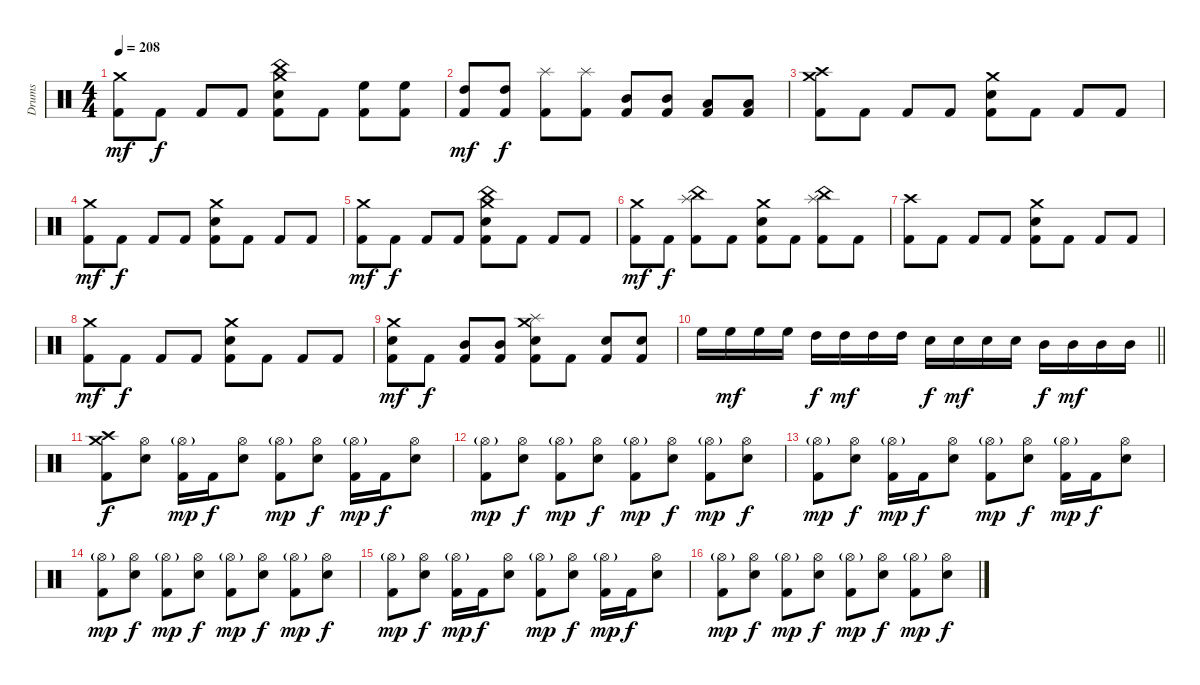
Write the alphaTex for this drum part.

\track ("Drums" "Drums") {instrument percussion}
\staff {score}
\articulation defaults
\ts (4 4)
\tempo 208
\clef neutral
\ks c
("Crash medium (hit)" "Kick (hit) 2").8{dy mf} "Kick (hit) 2".8{dy f} "Kick (hit) 2".8 "Kick (hit) 2".8 ("China (hit)" "Crash medium (hit)" "Electric Snare (hit)" "Kick (hit) 2").8 "Kick (hit) 2".8 ("High Floor Tom (hit)" "Kick (hit) 2").8 ("High Floor Tom (hit)" "Kick (hit) 2").8 |
("High Tom (hit)" "Kick (hit) 2").8{dy mf} ("High Tom (hit)" "Kick (hit) 2").8{dy f} ("Splash (hit)" "Kick (hit) 2").8 ("Splash (hit)" "Kick (hit) 2").8 ("Mid Tom (hit)" "Kick (hit) 2").8 ("Mid Tom (hit)" "Kick (hit) 2").8 ("Low Tom (hit)" "Kick (hit) 2").8 ("Low Tom (hit)" "Kick (hit) 2").8 |
("Crash high (hit)" "Crash medium (hit)" "Kick (hit) 2").8 "Kick (hit) 2".8 "Kick (hit) 2".8 "Kick (hit) 2".8 ("Crash medium (hit)" "Electric Snare (hit)" "Kick (hit) 2").8 "Kick (hit) 2".8 "Kick (hit) 2".8 "Kick (hit) 2".8 |
("Crash medium (hit)" "Kick (hit) 2").8{dy mf} "Kick (hit) 2".8{dy f} "Kick (hit) 2".8 "Kick (hit) 2".8 ("Crash medium (hit)" "Electric Snare (hit)" "Kick (hit) 2").8 "Kick (hit) 2".8 "Kick (hit) 2".8 "Kick (hit) 2".8 |
("Crash medium (hit)" "Kick (hit) 2").8{dy mf} "Kick (hit) 2".8{dy f} "Kick (hit) 2".8 "Kick (hit) 2".8 ("China (hit)" "Crash medium (hit)" "Electric Snare (hit)" "Kick (hit) 2").8 "Kick (hit) 2".8 "Kick (hit) 2".8 "Kick (hit) 2".8 |
("Crash medium (hit)" "Kick (hit) 2").8{dy mf} "Kick (hit) 2".8{dy f} ("China (hit)" "Splash (hit)" "Kick (hit) 2").8 "Kick (hit) 2".8 ("Crash medium (hit)" "Electric Snare (hit)" "Kick (hit) 2").8 "Kick (hit) 2".8 ("China (hit)" "Splash (hit)" "Kick (hit) 2").8 "Kick (hit) 2".8 |
("Crash high (hit)" "Kick (hit) 2").8 "Kick (hit) 2".8 "Kick (hit) 2".8 "Kick (hit) 2".8 ("Crash medium (hit)" "Electric Snare (hit)" "Kick (hit) 2").8 "Kick (hit) 2".8 "Kick (hit) 2".8 "Kick (hit) 2".8 |
("Crash medium (hit)" "Kick (hit) 2").8{dy mf} "Kick (hit) 2".8{dy f} "Kick (hit) 2".8 "Kick (hit) 2".8 ("Crash medium (hit)" "Electric Snare (hit)" "Kick (hit) 2").8 "Kick (hit) 2".8 "Kick (hit) 2".8 "Kick (hit) 2".8 |
("Crash medium (hit)" "Electric Snare (hit)" "Kick (hit) 2").8{dy mf} "Kick (hit) 2".8{dy f} ("Mid Tom (hit)" "Kick (hit) 2").8 ("Mid Tom (hit)" "Kick (hit) 2").8 ("Splash (hit)" "Crash medium (hit)" "Electric Snare (hit)" "Kick (hit) 2").8 "Kick (hit) 2".8 ("Electric Snare (hit)" "Kick (hit) 2").8 ("Electric Snare (hit)" "Kick (hit) 2").8 |
\barLineRight lightlight "High Floor Tom (hit)".16 "High Floor Tom (hit)".16{dy mf} "High Floor Tom (hit)".16 "High Floor Tom (hit)".16 "High Tom (hit)".16{dy f} "High Tom (hit)".16{dy mf} "High Tom (hit)".16 "High Tom (hit)".16 "Electric Snare (hit)".16{dy f} "Electric Snare (hit)".16{dy mf} "Electric Snare (hit)".16 "Electric Snare (hit)".16 "Mid Tom (hit)".16{dy f} "Mid Tom (hit)".16{dy mf} "Mid Tom (hit)".16 "Mid Tom (hit)".16
|
("Crash high (hit)" "Crash medium (hit)" "Kick (hit) 2").8{dy f} ("Hi-Hat (open)" "Electric Snare (hit)").8 ("Hi-Hat (open)"{g} "Kick (hit) 2").16{dy mp} "Kick (hit) 2".16{dy f} ("Hi-Hat (open)" "Electric Snare (hit)").8 ("Hi-Hat (open)"{g} "Kick (hit) 2").8{dy mp} ("Hi-Hat (open)" "Electric Snare (hit)").8{dy f} ("Hi-Hat (open)"{g} "Kick (hit) 2").16{dy mp} "Kick (hit) 2".16{dy f} ("Hi-Hat (open)" "Electric Snare (hit)").8 |
("Hi-Hat (open)"{g} "Kick (hit) 2").8{dy mp} ("Hi-Hat (open)" "Electric Snare (hit)").8{dy f} ("Hi-Hat (open)"{g} "Kick (hit) 2").8{dy mp} ("Hi-Hat (open)" "Electric Snare (hit)").8{dy f} ("Hi-Hat (open)"{g} "Kick (hit) 2").8{dy mp} ("Hi-Hat (open)" "Electric Snare (hit)").8{dy f} ("Hi-Hat (open)"{g} "Kick (hit) 2").8{dy mp} ("Hi-Hat (open)" "Electric Snare (hit)").8{dy f} |
("Hi-Hat (open)"{g} "Kick (hit) 2").8{dy mp} ("Hi-Hat (open)" "Electric Snare (hit)").8{dy f} ("Hi-Hat (open)"{g} "Kick (hit) 2").16{dy mp} "Kick (hit) 2".16{dy f} ("Hi-Hat (open)" "Electric Snare (hit)").8 ("Hi-Hat (open)"{g} "Kick (hit) 2").8{dy mp} ("Hi-Hat (open)" "Electric Snare (hit)").8{dy f} ("Hi-Hat (open)"{g} "Kick (hit) 2").16{dy mp} "Kick (hit) 2".16{dy f} ("Hi-Hat (open)" "Electric Snare (hit)").8 |
("Hi-Hat (open)"{g} "Kick (hit) 2").8{dy mp} ("Hi-Hat (open)" "Electric Snare (hit)").8{dy f} ("Hi-Hat (open)"{g} "Kick (hit) 2").8{dy mp} ("Hi-Hat (open)" "Electric Snare (hit)").8{dy f} ("Hi-Hat (open)"{g} "Kick (hit) 2").8{dy mp} ("Hi-Hat (open)" "Electric Snare (hit)").8{dy f} ("Hi-Hat (open)"{g} "Kick (hit) 2").8{dy mp} ("Hi-Hat (open)" "Electric Snare (hit)").8{dy f} |
("Hi-Hat (open)"{g} "Kick (hit) 2").8{dy mp} ("Hi-Hat (open)" "Electric Snare (hit)").8{dy f} ("Hi-Hat (open)"{g} "Kick (hit) 2").16{dy mp} "Kick (hit) 2".16{dy f} ("Hi-Hat (open)" "Electric Snare (hit)").8 ("Hi-Hat (open)"{g} "Kick (hit) 2").8{dy mp} ("Hi-Hat (open)" "Electric Snare (hit)").8{dy f} ("Hi-Hat (open)"{g} "Kick (hit) 2").16{dy mp} "Kick (hit) 2".16{dy f} ("Hi-Hat (open)" "Electric Snare (hit)").8 |
("Hi-Hat (open)"{g} "Kick (hit) 2").8{dy mp} ("Hi-Hat (open)" "Electric Snare (hit)").8{dy f} ("Hi-Hat (open)"{g} "Kick (hit) 2").8{dy mp} ("Hi-Hat (open)" "Electric Snare (hit)").8{dy f} ("Hi-Hat (open)"{g} "Kick (hit) 2").8{dy mp} ("Hi-Hat (open)" "Electric Snare (hit)").8{dy f} ("Hi-Hat (open)"{g} "Kick (hit) 2").8{dy mp} ("Hi-Hat (open)" "Electric Snare (hit)").8{dy f}
